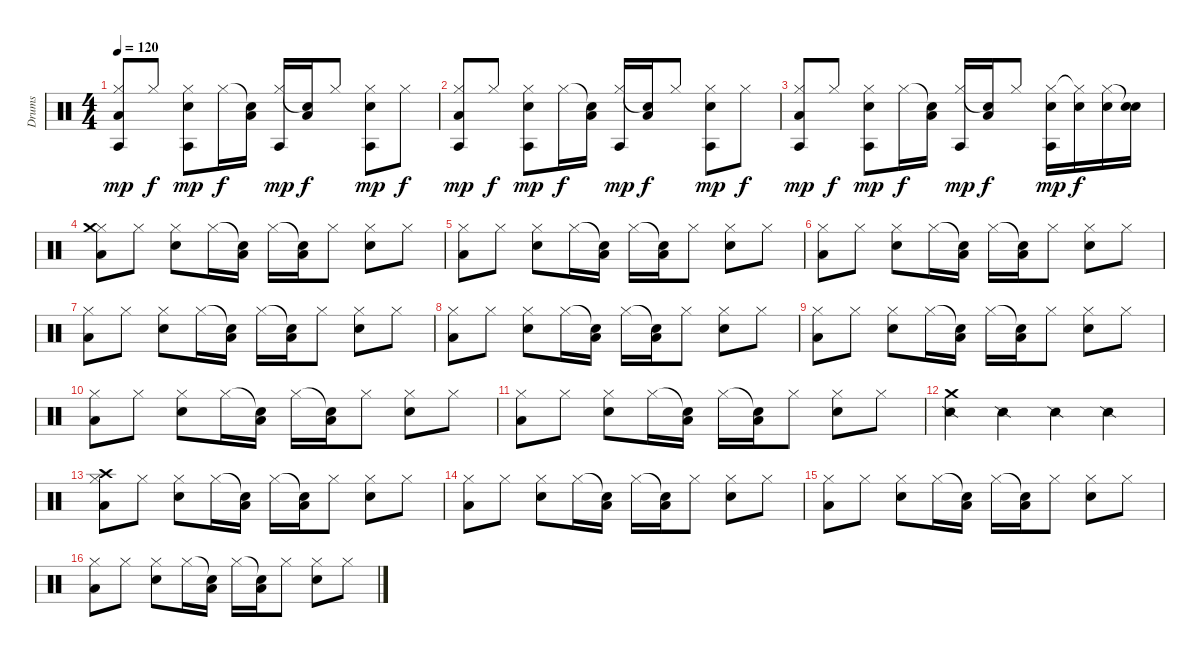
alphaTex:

\track ("Drums" "Drums") {instrument percussion}
\staff {score}
\articulation defaults
\ts (4 4)
\tempo 120
\clef neutral
\ks c
("Hi-Hat (closed)" "Low Tom (hit)" "Agogo tow (hit)").8{dy mp} "Hi-Hat (closed)".8{dy f} ("Hi-Hat (closed)" "Snare (hit) 2" "Agogo tow (hit)").8{dy mp} "Hi-Hat (closed)".16{dy f} ("Snare (hit)"{t} "Low Tom (hit)").16 ("Hi-Hat (closed)" "Agogo tow (hit)").16{dy mp} ("Snare (hit)"{t} "Low Tom (hit)").16{dy f} "Hi-Hat (closed)".8 ("Hi-Hat (closed)" "Snare (hit) 2" "Agogo tow (hit)").8{dy mp} "Hi-Hat (closed)".8{dy f} |
("Hi-Hat (closed)" "Low Tom (hit)" "Agogo tow (hit)").8{dy mp} "Hi-Hat (closed)".8{dy f} ("Hi-Hat (closed)" "Snare (hit) 2" "Agogo tow (hit)").8{dy mp} "Hi-Hat (closed)".16{dy f} ("Snare (hit)"{t} "Low Tom (hit)").16 ("Hi-Hat (closed)" "Agogo tow (hit)").16{dy mp} ("Snare (hit)"{t} "Low Tom (hit)").16{dy f} "Hi-Hat (closed)".8 ("Hi-Hat (closed)" "Snare (hit) 2" "Agogo tow (hit)").8{dy mp} "Hi-Hat (closed)".8{dy f} |
("Hi-Hat (closed)" "Low Tom (hit)" "Agogo tow (hit)").8{dy mp} "Hi-Hat (closed)".8{dy f} ("Hi-Hat (closed)" "Snare (hit) 2" "Agogo tow (hit)").8{dy mp} "Hi-Hat (closed)".16{dy f} ("Snare (hit)"{t} "Low Tom (hit)").16 ("Hi-Hat (closed)" "Agogo tow (hit)").16{dy mp} ("Snare (hit)"{t} "Low Tom (hit)").16{dy f} "Hi-Hat (closed)".8 ("Hi-Hat (closed)" "Snare (hit) 2" "Agogo tow (hit)").16{dy mp} ("Hi-Hat (closed)"{t} "Snare (hit) 2").16{dy f} ("Hi-Hat (closed)" "Snare (hit) 2").16 ("Snare (hit)"{t} "Snare (hit) 2").16 |
("Hi-Hat (closed)" "Low Tom (hit)" "Crash medium (hit)").8 "Hi-Hat (closed)".8 ("Hi-Hat (closed)" "Snare (hit) 2").8 "Hi-Hat (closed)".16 ("Snare (hit)"{t} "Low Tom (hit)").16 "Hi-Hat (closed)".16 ("Snare (hit)"{t} "Low Tom (hit)").16 "Hi-Hat (closed)".8 ("Hi-Hat (closed)" "Snare (hit) 2").8 "Hi-Hat (closed)".8 |
("Hi-Hat (closed)" "Low Tom (hit)").8 "Hi-Hat (closed)".8 ("Hi-Hat (closed)" "Snare (hit) 2").8 "Hi-Hat (closed)".16 ("Snare (hit)"{t} "Low Tom (hit)").16 "Hi-Hat (closed)".16 ("Snare (hit)"{t} "Low Tom (hit)").16 "Hi-Hat (closed)".8 ("Hi-Hat (closed)" "Snare (hit) 2").8 "Hi-Hat (closed)".8 |
("Hi-Hat (closed)" "Low Tom (hit)").8 "Hi-Hat (closed)".8 ("Hi-Hat (closed)" "Snare (hit) 2").8 "Hi-Hat (closed)".16 ("Snare (hit)"{t} "Low Tom (hit)").16 "Hi-Hat (closed)".16 ("Snare (hit)"{t} "Low Tom (hit)").16 "Hi-Hat (closed)".8 ("Hi-Hat (closed)" "Snare (hit) 2").8 "Hi-Hat (closed)".8 |
("Hi-Hat (closed)" "Low Tom (hit)").8 "Hi-Hat (closed)".8 ("Hi-Hat (closed)" "Snare (hit) 2").8 "Hi-Hat (closed)".16 ("Snare (hit)"{t} "Low Tom (hit)").16 "Hi-Hat (closed)".16 ("Snare (hit)"{t} "Low Tom (hit)").16 "Hi-Hat (closed)".8 ("Hi-Hat (closed)" "Snare (hit) 2").8 "Hi-Hat (closed)".8 |
("Hi-Hat (closed)" "Low Tom (hit)").8 "Hi-Hat (closed)".8 ("Hi-Hat (closed)" "Snare (hit) 2").8 "Hi-Hat (closed)".16 ("Snare (hit)"{t} "Low Tom (hit)").16 "Hi-Hat (closed)".16 ("Snare (hit)"{t} "Low Tom (hit)").16 "Hi-Hat (closed)".8 ("Hi-Hat (closed)" "Snare (hit) 2").8 "Hi-Hat (closed)".8 |
("Hi-Hat (closed)" "Low Tom (hit)").8 "Hi-Hat (closed)".8 ("Hi-Hat (closed)" "Snare (hit) 2").8 "Hi-Hat (closed)".16 ("Snare (hit)"{t} "Low Tom (hit)").16 "Hi-Hat (closed)".16 ("Snare (hit)"{t} "Low Tom (hit)").16 "Hi-Hat (closed)".8 ("Hi-Hat (closed)" "Snare (hit) 2").8 "Hi-Hat (closed)".8 |
("Hi-Hat (closed)" "Low Tom (hit)").8 "Hi-Hat (closed)".8 ("Hi-Hat (closed)" "Snare (hit) 2").8 "Hi-Hat (closed)".16 ("Snare (hit)"{t} "Low Tom (hit)").16 "Hi-Hat (closed)".16 ("Snare (hit)"{t} "Low Tom (hit)").16 "Hi-Hat (closed)".8 ("Hi-Hat (closed)" "Snare (hit) 2").8 "Hi-Hat (closed)".8 |
("Hi-Hat (closed)" "Low Tom (hit)").8 "Hi-Hat (closed)".8 ("Hi-Hat (closed)" "Snare (hit) 2").8 "Hi-Hat (closed)".16 ("Snare (hit)"{t} "Low Tom (hit)").16 "Hi-Hat (closed)".16 ("Snare (hit)"{t} "Low Tom (hit)").16 "Hi-Hat (closed)".8 ("Hi-Hat (closed)" "Snare (hit) 2").8 "Hi-Hat (closed)".8 |
("Snare (side stick) 2" "Crash medium (hit)").4 "Snare (side stick) 2".4 "Snare (side stick) 2".4 "Snare (side stick) 2".4 |
("Hi-Hat (closed)" "Low Tom (hit)" "Crash high (hit)").8 "Hi-Hat (closed)".8 ("Hi-Hat (closed)" "Snare (hit) 2").8 "Hi-Hat (closed)".16 ("Snare (hit)"{t} "Low Tom (hit)").16 "Hi-Hat (closed)".16 ("Snare (hit)"{t} "Low Tom (hit)").16 "Hi-Hat (closed)".8 ("Hi-Hat (closed)" "Snare (hit) 2").8 "Hi-Hat (closed)".8 |
("Hi-Hat (closed)" "Low Tom (hit)").8 "Hi-Hat (closed)".8 ("Hi-Hat (closed)" "Snare (hit) 2").8 "Hi-Hat (closed)".16 ("Snare (hit)"{t} "Low Tom (hit)").16 "Hi-Hat (closed)".16 ("Snare (hit)"{t} "Low Tom (hit)").16 "Hi-Hat (closed)".8 ("Hi-Hat (closed)" "Snare (hit) 2").8 "Hi-Hat (closed)".8 |
("Hi-Hat (closed)" "Low Tom (hit)").8 "Hi-Hat (closed)".8 ("Hi-Hat (closed)" "Snare (hit) 2").8 "Hi-Hat (closed)".16 ("Snare (hit)"{t} "Low Tom (hit)").16 "Hi-Hat (closed)".16 ("Snare (hit)"{t} "Low Tom (hit)").16 "Hi-Hat (closed)".8 ("Hi-Hat (closed)" "Snare (hit) 2").8 "Hi-Hat (closed)".8 |
("Hi-Hat (closed)" "Low Tom (hit)").8 "Hi-Hat (closed)".8 ("Hi-Hat (closed)" "Snare (hit) 2").8 "Hi-Hat (closed)".16 ("Snare (hit)"{t} "Low Tom (hit)").16 "Hi-Hat (closed)".16 ("Snare (hit)"{t} "Low Tom (hit)").16 "Hi-Hat (closed)".8 ("Hi-Hat (closed)" "Snare (hit) 2").8 "Hi-Hat (closed)".8
